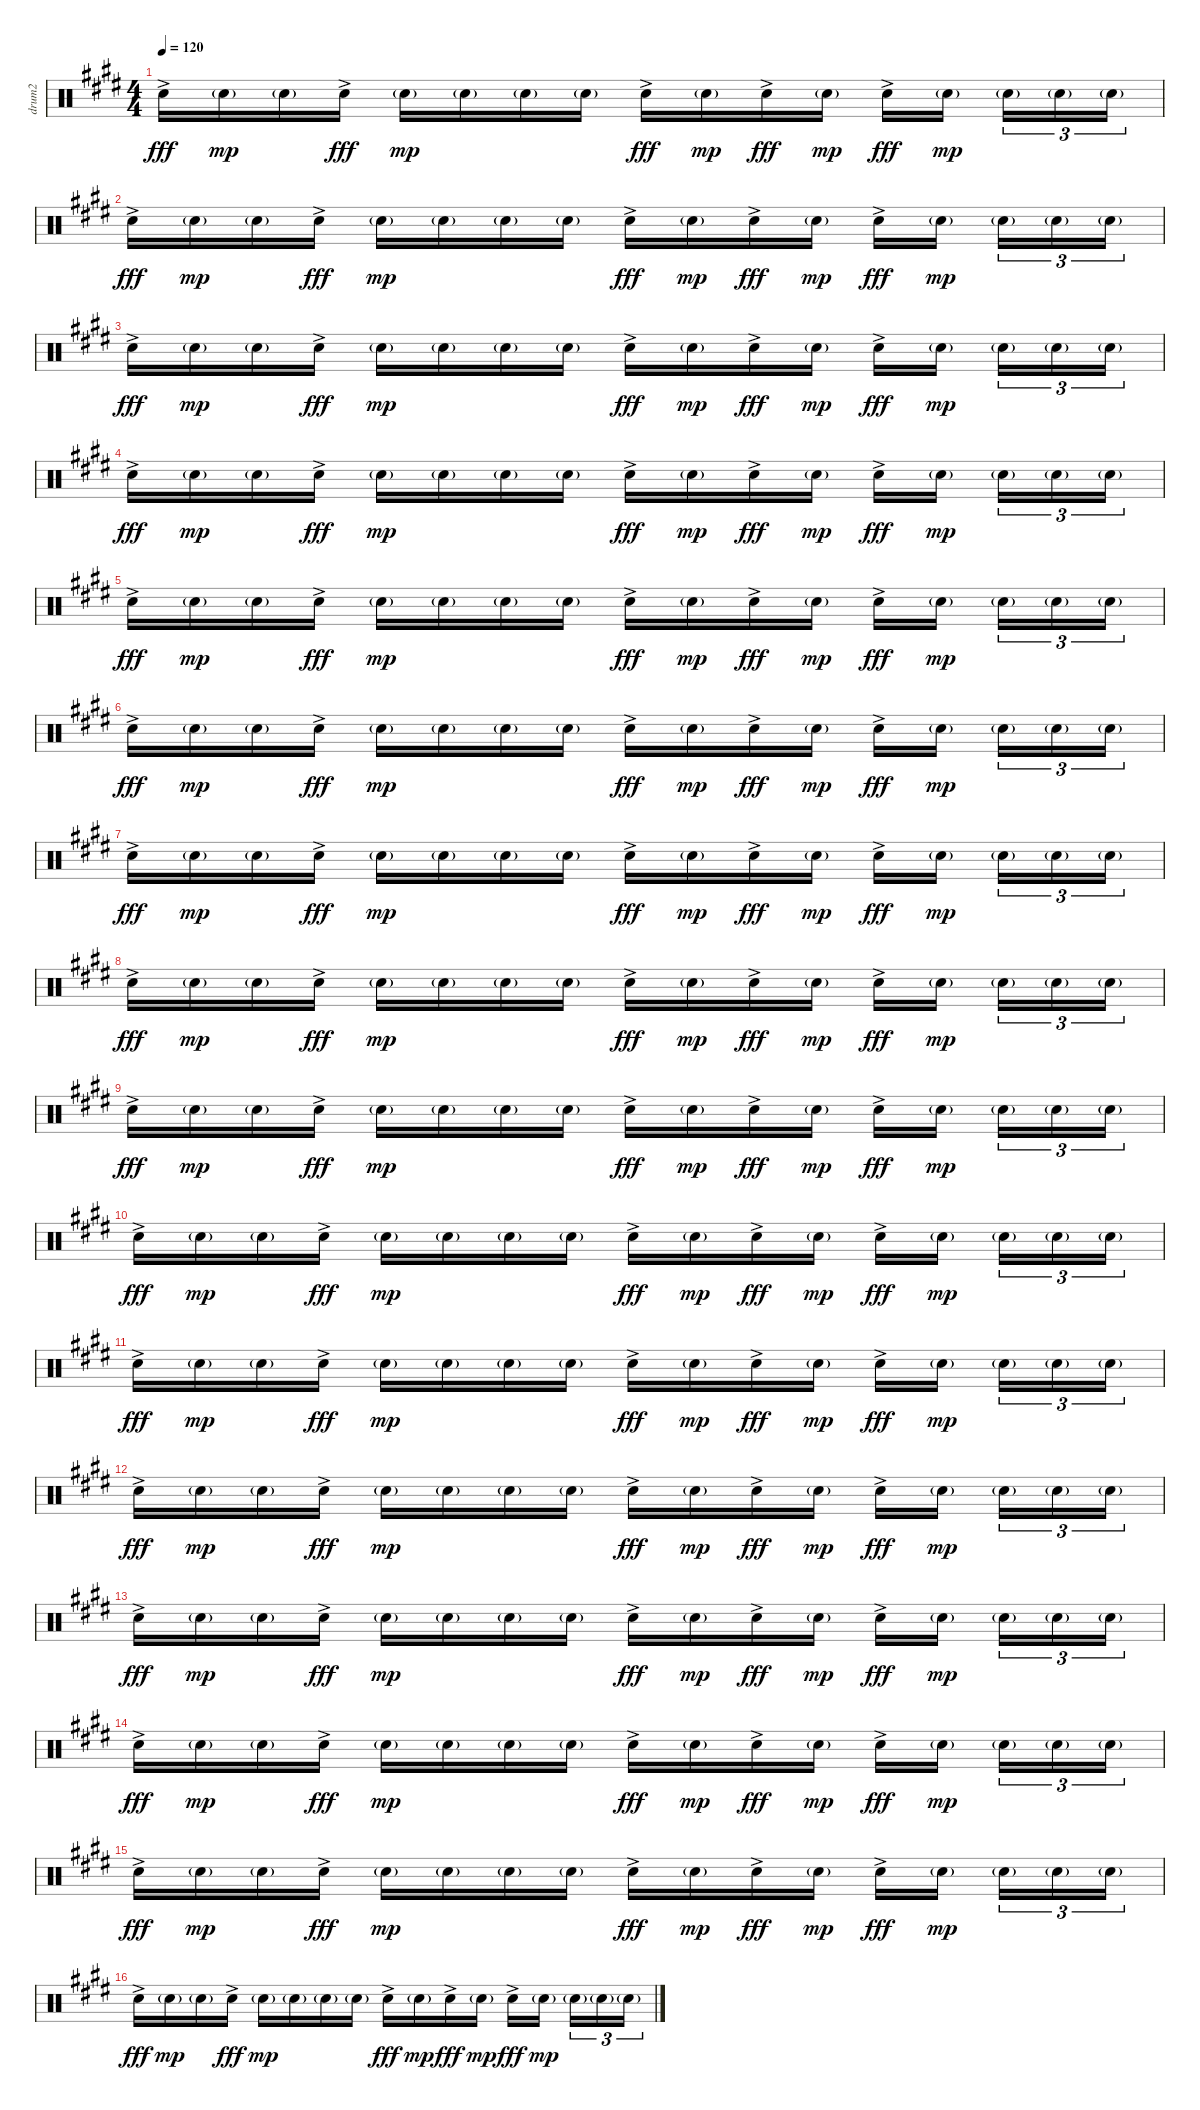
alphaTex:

\track ("drum2" "drum2") {instrument percussion}
\staff {score}
\articulation defaults
\ts (4 4)
\tempo 120
\clef neutral
\ks e "Snare (hit) 2"{ac}.16{dy fff} "Snare (hit) 2"{g}.16{dy mp} "Snare (hit) 2"{g}.16 "Snare (hit) 2"{ac}.16{dy fff} "Snare (hit) 2"{g}.16{dy mp} "Snare (hit) 2"{g}.16 "Snare (hit) 2"{g}.16 "Snare (hit) 2"{g}.16 "Snare (hit) 2"{ac}.16{dy fff} "Snare (hit) 2"{g}.16{dy mp} "Snare (hit) 2"{ac}.16{dy fff} "Snare (hit) 2"{g}.16{dy mp} "Snare (hit) 2"{ac}.16{dy fff} "Snare (hit) 2"{g}.16{dy mp} "Snare (hit) 2"{g}.16{tu (3 2)} "Snare (hit) 2"{g}.16{tu (3 2)} "Snare (hit) 2"{g}.16{tu (3 2)}
|
"Snare (hit) 2"{ac}.16{dy fff} "Snare (hit) 2"{g}.16{dy mp} "Snare (hit) 2"{g}.16 "Snare (hit) 2"{ac}.16{dy fff} "Snare (hit) 2"{g}.16{dy mp} "Snare (hit) 2"{g}.16 "Snare (hit) 2"{g}.16 "Snare (hit) 2"{g}.16 "Snare (hit) 2"{ac}.16{dy fff} "Snare (hit) 2"{g}.16{dy mp} "Snare (hit) 2"{ac}.16{dy fff} "Snare (hit) 2"{g}.16{dy mp} "Snare (hit) 2"{ac}.16{dy fff} "Snare (hit) 2"{g}.16{dy mp} "Snare (hit) 2"{g}.16{tu (3 2)} "Snare (hit) 2"{g}.16{tu (3 2)} "Snare (hit) 2"{g}.16{tu (3 2)} |
"Snare (hit) 2"{ac}.16{dy fff} "Snare (hit) 2"{g}.16{dy mp} "Snare (hit) 2"{g}.16 "Snare (hit) 2"{ac}.16{dy fff} "Snare (hit) 2"{g}.16{dy mp} "Snare (hit) 2"{g}.16 "Snare (hit) 2"{g}.16 "Snare (hit) 2"{g}.16 "Snare (hit) 2"{ac}.16{dy fff} "Snare (hit) 2"{g}.16{dy mp} "Snare (hit) 2"{ac}.16{dy fff} "Snare (hit) 2"{g}.16{dy mp} "Snare (hit) 2"{ac}.16{dy fff} "Snare (hit) 2"{g}.16{dy mp} "Snare (hit) 2"{g}.16{tu (3 2)} "Snare (hit) 2"{g}.16{tu (3 2)} "Snare (hit) 2"{g}.16{tu (3 2)} |
"Snare (hit) 2"{ac}.16{dy fff} "Snare (hit) 2"{g}.16{dy mp} "Snare (hit) 2"{g}.16 "Snare (hit) 2"{ac}.16{dy fff} "Snare (hit) 2"{g}.16{dy mp} "Snare (hit) 2"{g}.16 "Snare (hit) 2"{g}.16 "Snare (hit) 2"{g}.16 "Snare (hit) 2"{ac}.16{dy fff} "Snare (hit) 2"{g}.16{dy mp} "Snare (hit) 2"{ac}.16{dy fff} "Snare (hit) 2"{g}.16{dy mp} "Snare (hit) 2"{ac}.16{dy fff} "Snare (hit) 2"{g}.16{dy mp} "Snare (hit) 2"{g}.16{tu (3 2)} "Snare (hit) 2"{g}.16{tu (3 2)} "Snare (hit) 2"{g}.16{tu (3 2)} |
"Snare (hit) 2"{ac}.16{dy fff} "Snare (hit) 2"{g}.16{dy mp} "Snare (hit) 2"{g}.16 "Snare (hit) 2"{ac}.16{dy fff} "Snare (hit) 2"{g}.16{dy mp} "Snare (hit) 2"{g}.16 "Snare (hit) 2"{g}.16 "Snare (hit) 2"{g}.16 "Snare (hit) 2"{ac}.16{dy fff} "Snare (hit) 2"{g}.16{dy mp} "Snare (hit) 2"{ac}.16{dy fff} "Snare (hit) 2"{g}.16{dy mp} "Snare (hit) 2"{ac}.16{dy fff} "Snare (hit) 2"{g}.16{dy mp} "Snare (hit) 2"{g}.16{tu (3 2)} "Snare (hit) 2"{g}.16{tu (3 2)} "Snare (hit) 2"{g}.16{tu (3 2)} |
"Snare (hit) 2"{ac}.16{dy fff} "Snare (hit) 2"{g}.16{dy mp} "Snare (hit) 2"{g}.16 "Snare (hit) 2"{ac}.16{dy fff} "Snare (hit) 2"{g}.16{dy mp} "Snare (hit) 2"{g}.16 "Snare (hit) 2"{g}.16 "Snare (hit) 2"{g}.16 "Snare (hit) 2"{ac}.16{dy fff} "Snare (hit) 2"{g}.16{dy mp} "Snare (hit) 2"{ac}.16{dy fff} "Snare (hit) 2"{g}.16{dy mp} "Snare (hit) 2"{ac}.16{dy fff} "Snare (hit) 2"{g}.16{dy mp} "Snare (hit) 2"{g}.16{tu (3 2)} "Snare (hit) 2"{g}.16{tu (3 2)} "Snare (hit) 2"{g}.16{tu (3 2)} |
"Snare (hit) 2"{ac}.16{dy fff} "Snare (hit) 2"{g}.16{dy mp} "Snare (hit) 2"{g}.16 "Snare (hit) 2"{ac}.16{dy fff} "Snare (hit) 2"{g}.16{dy mp} "Snare (hit) 2"{g}.16 "Snare (hit) 2"{g}.16 "Snare (hit) 2"{g}.16 "Snare (hit) 2"{ac}.16{dy fff} "Snare (hit) 2"{g}.16{dy mp} "Snare (hit) 2"{ac}.16{dy fff} "Snare (hit) 2"{g}.16{dy mp} "Snare (hit) 2"{ac}.16{dy fff} "Snare (hit) 2"{g}.16{dy mp} "Snare (hit) 2"{g}.16{tu (3 2)} "Snare (hit) 2"{g}.16{tu (3 2)} "Snare (hit) 2"{g}.16{tu (3 2)} |
"Snare (hit) 2"{ac}.16{dy fff} "Snare (hit) 2"{g}.16{dy mp} "Snare (hit) 2"{g}.16 "Snare (hit) 2"{ac}.16{dy fff} "Snare (hit) 2"{g}.16{dy mp} "Snare (hit) 2"{g}.16 "Snare (hit) 2"{g}.16 "Snare (hit) 2"{g}.16 "Snare (hit) 2"{ac}.16{dy fff} "Snare (hit) 2"{g}.16{dy mp} "Snare (hit) 2"{ac}.16{dy fff} "Snare (hit) 2"{g}.16{dy mp} "Snare (hit) 2"{ac}.16{dy fff} "Snare (hit) 2"{g}.16{dy mp} "Snare (hit) 2"{g}.16{tu (3 2)} "Snare (hit) 2"{g}.16{tu (3 2)} "Snare (hit) 2"{g}.16{tu (3 2)} |
"Snare (hit) 2"{ac}.16{dy fff} "Snare (hit) 2"{g}.16{dy mp} "Snare (hit) 2"{g}.16 "Snare (hit) 2"{ac}.16{dy fff} "Snare (hit) 2"{g}.16{dy mp} "Snare (hit) 2"{g}.16 "Snare (hit) 2"{g}.16 "Snare (hit) 2"{g}.16 "Snare (hit) 2"{ac}.16{dy fff} "Snare (hit) 2"{g}.16{dy mp} "Snare (hit) 2"{ac}.16{dy fff} "Snare (hit) 2"{g}.16{dy mp} "Snare (hit) 2"{ac}.16{dy fff} "Snare (hit) 2"{g}.16{dy mp} "Snare (hit) 2"{g}.16{tu (3 2)} "Snare (hit) 2"{g}.16{tu (3 2)} "Snare (hit) 2"{g}.16{tu (3 2)} |
"Snare (hit) 2"{ac}.16{dy fff} "Snare (hit) 2"{g}.16{dy mp} "Snare (hit) 2"{g}.16 "Snare (hit) 2"{ac}.16{dy fff} "Snare (hit) 2"{g}.16{dy mp} "Snare (hit) 2"{g}.16 "Snare (hit) 2"{g}.16 "Snare (hit) 2"{g}.16 "Snare (hit) 2"{ac}.16{dy fff} "Snare (hit) 2"{g}.16{dy mp} "Snare (hit) 2"{ac}.16{dy fff} "Snare (hit) 2"{g}.16{dy mp} "Snare (hit) 2"{ac}.16{dy fff} "Snare (hit) 2"{g}.16{dy mp} "Snare (hit) 2"{g}.16{tu (3 2)} "Snare (hit) 2"{g}.16{tu (3 2)} "Snare (hit) 2"{g}.16{tu (3 2)} |
"Snare (hit) 2"{ac}.16{dy fff} "Snare (hit) 2"{g}.16{dy mp} "Snare (hit) 2"{g}.16 "Snare (hit) 2"{ac}.16{dy fff} "Snare (hit) 2"{g}.16{dy mp} "Snare (hit) 2"{g}.16 "Snare (hit) 2"{g}.16 "Snare (hit) 2"{g}.16 "Snare (hit) 2"{ac}.16{dy fff} "Snare (hit) 2"{g}.16{dy mp} "Snare (hit) 2"{ac}.16{dy fff} "Snare (hit) 2"{g}.16{dy mp} "Snare (hit) 2"{ac}.16{dy fff} "Snare (hit) 2"{g}.16{dy mp} "Snare (hit) 2"{g}.16{tu (3 2)} "Snare (hit) 2"{g}.16{tu (3 2)} "Snare (hit) 2"{g}.16{tu (3 2)} |
"Snare (hit) 2"{ac}.16{dy fff} "Snare (hit) 2"{g}.16{dy mp} "Snare (hit) 2"{g}.16 "Snare (hit) 2"{ac}.16{dy fff} "Snare (hit) 2"{g}.16{dy mp} "Snare (hit) 2"{g}.16 "Snare (hit) 2"{g}.16 "Snare (hit) 2"{g}.16 "Snare (hit) 2"{ac}.16{dy fff} "Snare (hit) 2"{g}.16{dy mp} "Snare (hit) 2"{ac}.16{dy fff} "Snare (hit) 2"{g}.16{dy mp} "Snare (hit) 2"{ac}.16{dy fff} "Snare (hit) 2"{g}.16{dy mp} "Snare (hit) 2"{g}.16{tu (3 2)} "Snare (hit) 2"{g}.16{tu (3 2)} "Snare (hit) 2"{g}.16{tu (3 2)} |
"Snare (hit) 2"{ac}.16{dy fff} "Snare (hit) 2"{g}.16{dy mp} "Snare (hit) 2"{g}.16 "Snare (hit) 2"{ac}.16{dy fff} "Snare (hit) 2"{g}.16{dy mp} "Snare (hit) 2"{g}.16 "Snare (hit) 2"{g}.16 "Snare (hit) 2"{g}.16 "Snare (hit) 2"{ac}.16{dy fff} "Snare (hit) 2"{g}.16{dy mp} "Snare (hit) 2"{ac}.16{dy fff} "Snare (hit) 2"{g}.16{dy mp} "Snare (hit) 2"{ac}.16{dy fff} "Snare (hit) 2"{g}.16{dy mp} "Snare (hit) 2"{g}.16{tu (3 2)} "Snare (hit) 2"{g}.16{tu (3 2)} "Snare (hit) 2"{g}.16{tu (3 2)} |
"Snare (hit) 2"{ac}.16{dy fff} "Snare (hit) 2"{g}.16{dy mp} "Snare (hit) 2"{g}.16 "Snare (hit) 2"{ac}.16{dy fff} "Snare (hit) 2"{g}.16{dy mp} "Snare (hit) 2"{g}.16 "Snare (hit) 2"{g}.16 "Snare (hit) 2"{g}.16 "Snare (hit) 2"{ac}.16{dy fff} "Snare (hit) 2"{g}.16{dy mp} "Snare (hit) 2"{ac}.16{dy fff} "Snare (hit) 2"{g}.16{dy mp} "Snare (hit) 2"{ac}.16{dy fff} "Snare (hit) 2"{g}.16{dy mp} "Snare (hit) 2"{g}.16{tu (3 2)} "Snare (hit) 2"{g}.16{tu (3 2)} "Snare (hit) 2"{g}.16{tu (3 2)} |
"Snare (hit) 2"{ac}.16{dy fff} "Snare (hit) 2"{g}.16{dy mp} "Snare (hit) 2"{g}.16 "Snare (hit) 2"{ac}.16{dy fff} "Snare (hit) 2"{g}.16{dy mp} "Snare (hit) 2"{g}.16 "Snare (hit) 2"{g}.16 "Snare (hit) 2"{g}.16 "Snare (hit) 2"{ac}.16{dy fff} "Snare (hit) 2"{g}.16{dy mp} "Snare (hit) 2"{ac}.16{dy fff} "Snare (hit) 2"{g}.16{dy mp} "Snare (hit) 2"{ac}.16{dy fff} "Snare (hit) 2"{g}.16{dy mp} "Snare (hit) 2"{g}.16{tu (3 2)} "Snare (hit) 2"{g}.16{tu (3 2)} "Snare (hit) 2"{g}.16{tu (3 2)} |
"Snare (hit) 2"{ac}.16{dy fff} "Snare (hit) 2"{g}.16{dy mp} "Snare (hit) 2"{g}.16 "Snare (hit) 2"{ac}.16{dy fff} "Snare (hit) 2"{g}.16{dy mp} "Snare (hit) 2"{g}.16 "Snare (hit) 2"{g}.16 "Snare (hit) 2"{g}.16 "Snare (hit) 2"{ac}.16{dy fff} "Snare (hit) 2"{g}.16{dy mp} "Snare (hit) 2"{ac}.16{dy fff} "Snare (hit) 2"{g}.16{dy mp} "Snare (hit) 2"{ac}.16{dy fff} "Snare (hit) 2"{g}.16{dy mp} "Snare (hit) 2"{g}.16{tu (3 2)} "Snare (hit) 2"{g}.16{tu (3 2)} "Snare (hit) 2"{g}.16{tu (3 2)}
